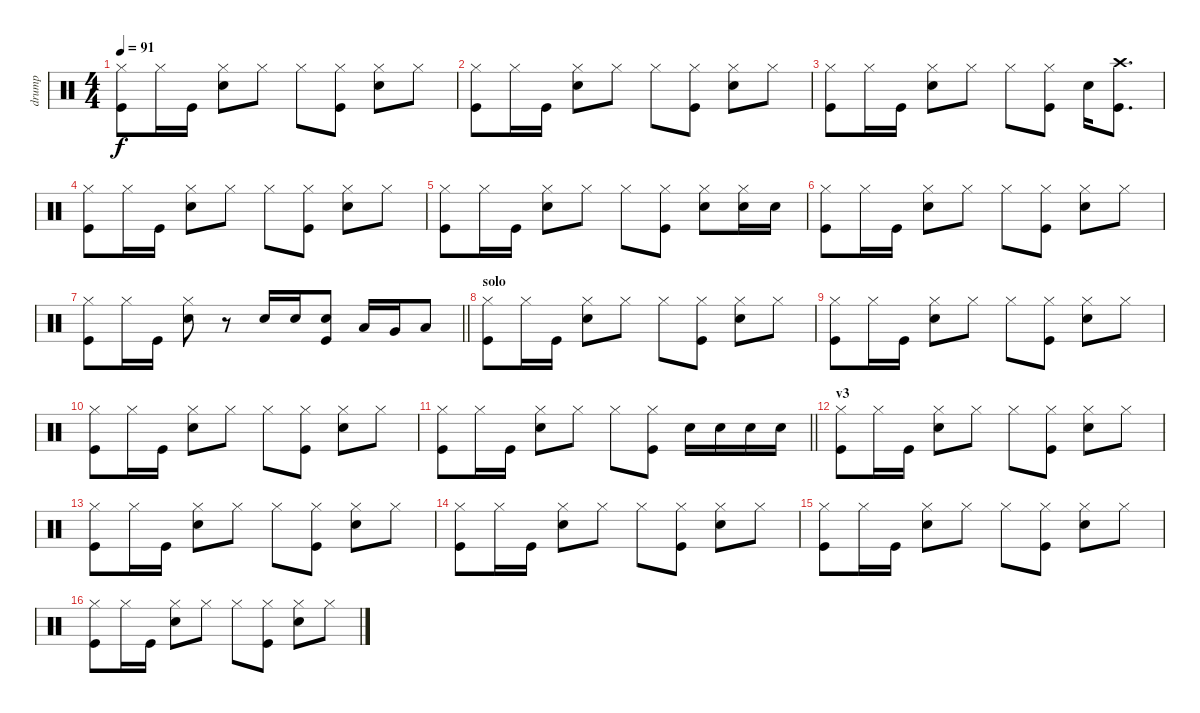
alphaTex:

\track ("drump" "drump") {instrument percussion}
\staff {score}
\articulation defaults
\ts (4 4)
\tempo 91
\clef neutral
\ks c
("Kick (hit)" "Hi-Hat (closed)").8{dy f} "Hi-Hat (closed)".16 "Kick (hit)".16 ("Snare (hit) 2" "Hi-Hat (closed)").8 "Hi-Hat (closed)".8 "Hi-Hat (closed)".8 ("Kick (hit)" "Hi-Hat (closed)").8 ("Snare (hit) 2" "Hi-Hat (closed)").8 "Hi-Hat (closed)".8 |
("Kick (hit)" "Hi-Hat (closed)").8 "Hi-Hat (closed)".16 "Kick (hit)".16 ("Snare (hit) 2" "Hi-Hat (closed)").8 "Hi-Hat (closed)".8 "Hi-Hat (closed)".8 ("Kick (hit)" "Hi-Hat (closed)").8 ("Snare (hit) 2" "Hi-Hat (closed)").8 "Hi-Hat (closed)".8 |
("Kick (hit)" "Hi-Hat (closed)").8 "Hi-Hat (closed)".16 "Kick (hit)".16 ("Snare (hit) 2" "Hi-Hat (closed)").8 "Hi-Hat (closed)".8 "Hi-Hat (closed)".8 ("Kick (hit)" "Hi-Hat (closed)").8 "Snare (hit) 2".16 ("Kick (hit)" "Crash high (hit)").8{d} |
("Kick (hit)" "Hi-Hat (closed)").8 "Hi-Hat (closed)".16 "Kick (hit)".16 ("Snare (hit) 2" "Hi-Hat (closed)").8 "Hi-Hat (closed)".8 "Hi-Hat (closed)".8 ("Kick (hit)" "Hi-Hat (closed)").8 ("Snare (hit) 2" "Hi-Hat (closed)").8 "Hi-Hat (closed)".8 |
("Kick (hit)" "Hi-Hat (closed)").8 "Hi-Hat (closed)".16 "Kick (hit)".16 ("Snare (hit) 2" "Hi-Hat (closed)").8 "Hi-Hat (closed)".8 "Hi-Hat (closed)".8 ("Kick (hit)" "Hi-Hat (closed)").8 ("Snare (hit) 2" "Hi-Hat (closed)").8 ("Snare (hit) 2" "Hi-Hat (closed)").16 "Snare (hit) 2".16 |
("Kick (hit)" "Hi-Hat (closed)").8 "Hi-Hat (closed)".16 "Kick (hit)".16 ("Snare (hit) 2" "Hi-Hat (closed)").8 "Hi-Hat (closed)".8 "Hi-Hat (closed)".8 ("Kick (hit)" "Hi-Hat (closed)").8 ("Snare (hit) 2" "Hi-Hat (closed)").8 "Hi-Hat (closed)".8 |
\barLineRight lightlight
("Kick (hit)" "Hi-Hat (closed)").8 "Hi-Hat (closed)".16 "Kick (hit)".16 ("Snare (hit) 2" "Hi-Hat (closed)").8 r.8 "Snare (hit) 2".16 "Snare (hit) 2".16 ("Snare (hit) 2" "Kick (hit)").8 "Low Tom (hit)".16 "Very Low Tom (hit)".16 "Low Floor Tom (hit)".8 |
\section ("" "solo")
("Kick (hit)" "Hi-Hat (closed)").8 "Hi-Hat (closed)".16 "Kick (hit)".16 ("Snare (hit) 2" "Hi-Hat (closed)").8 "Hi-Hat (closed)".8 "Hi-Hat (closed)".8 ("Kick (hit)" "Hi-Hat (closed)").8 ("Snare (hit) 2" "Hi-Hat (closed)").8 "Hi-Hat (closed)".8 |
("Kick (hit)" "Hi-Hat (closed)").8 "Hi-Hat (closed)".16 "Kick (hit)".16 ("Snare (hit) 2" "Hi-Hat (closed)").8 "Hi-Hat (closed)".8 "Hi-Hat (closed)".8 ("Kick (hit)" "Hi-Hat (closed)").8 ("Snare (hit) 2" "Hi-Hat (closed)").8 "Hi-Hat (closed)".8 |
("Kick (hit)" "Hi-Hat (closed)").8 "Hi-Hat (closed)".16 "Kick (hit)".16 ("Snare (hit) 2" "Hi-Hat (closed)").8 "Hi-Hat (closed)".8 "Hi-Hat (closed)".8 ("Kick (hit)" "Hi-Hat (closed)").8 ("Snare (hit) 2" "Hi-Hat (closed)").8 "Hi-Hat (closed)".8 |
\barLineRight lightlight
("Kick (hit)" "Hi-Hat (closed)").8 "Hi-Hat (closed)".16 "Kick (hit)".16 ("Snare (hit) 2" "Hi-Hat (closed)").8 "Hi-Hat (closed)".8 "Hi-Hat (closed)".8 ("Kick (hit)" "Hi-Hat (closed)").8 "Snare (hit) 2".16 "Snare (hit) 2".16 "Snare (hit) 2".16 "Snare (hit) 2".16 |
\section ("" "v3")
("Kick (hit)" "Hi-Hat (closed)").8 "Hi-Hat (closed)".16 "Kick (hit)".16 ("Snare (hit) 2" "Hi-Hat (closed)").8 "Hi-Hat (closed)".8 "Hi-Hat (closed)".8 ("Kick (hit)" "Hi-Hat (closed)").8 ("Snare (hit) 2" "Hi-Hat (closed)").8 "Hi-Hat (closed)".8 |
("Kick (hit)" "Hi-Hat (closed)").8 "Hi-Hat (closed)".16 "Kick (hit)".16 ("Snare (hit) 2" "Hi-Hat (closed)").8 "Hi-Hat (closed)".8 "Hi-Hat (closed)".8 ("Kick (hit)" "Hi-Hat (closed)").8 ("Snare (hit) 2" "Hi-Hat (closed)").8 "Hi-Hat (closed)".8 |
("Kick (hit)" "Hi-Hat (closed)").8 "Hi-Hat (closed)".16 "Kick (hit)".16 ("Snare (hit) 2" "Hi-Hat (closed)").8 "Hi-Hat (closed)".8 "Hi-Hat (closed)".8 ("Kick (hit)" "Hi-Hat (closed)").8 ("Snare (hit) 2" "Hi-Hat (closed)").8 "Hi-Hat (closed)".8 |
("Kick (hit)" "Hi-Hat (closed)").8 "Hi-Hat (closed)".16 "Kick (hit)".16 ("Snare (hit) 2" "Hi-Hat (closed)").8 "Hi-Hat (closed)".8 "Hi-Hat (closed)".8 ("Kick (hit)" "Hi-Hat (closed)").8 ("Snare (hit) 2" "Hi-Hat (closed)").8 "Hi-Hat (closed)".8 |
("Kick (hit)" "Hi-Hat (closed)").8 "Hi-Hat (closed)".16 "Kick (hit)".16 ("Snare (hit) 2" "Hi-Hat (closed)").8 "Hi-Hat (closed)".8 "Hi-Hat (closed)".8 ("Kick (hit)" "Hi-Hat (closed)").8 ("Snare (hit) 2" "Hi-Hat (closed)").8 "Hi-Hat (closed)".8
